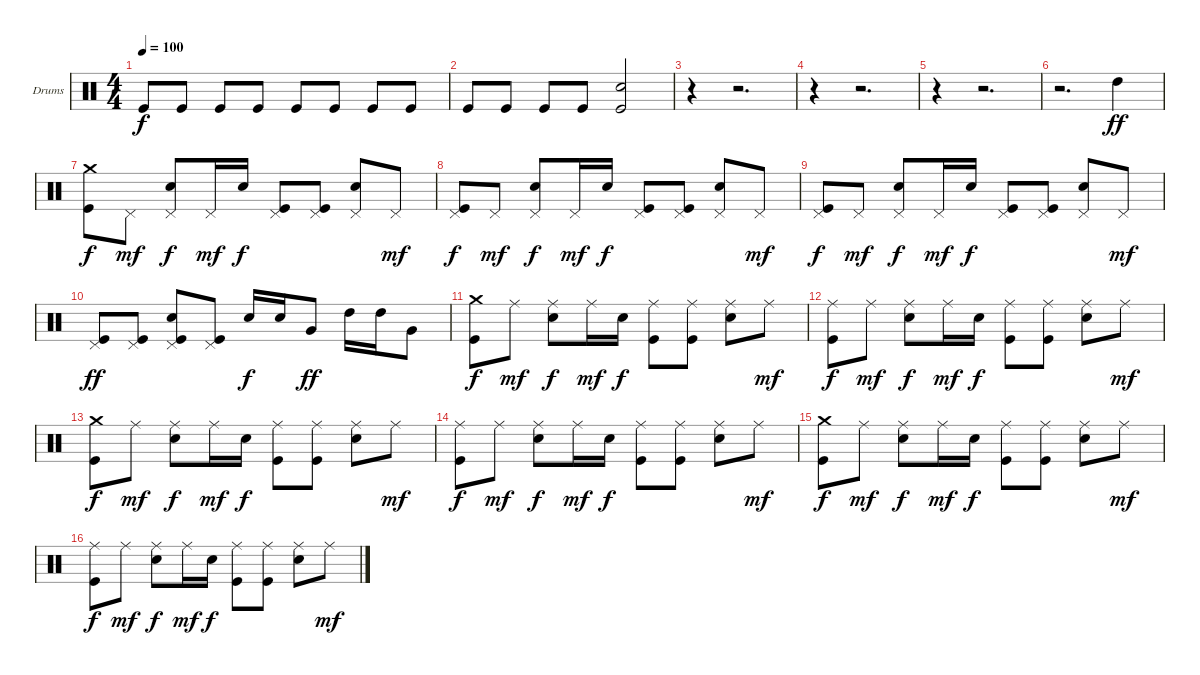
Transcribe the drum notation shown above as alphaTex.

\defaultSystemsLayout 4
\bracketExtendMode groupsimilarinstruments
\firstSystemTrackNameOrientation horizontal
\otherSystemsTrackNameOrientation horizontal
\track ("Drums" "Drums") {instrument percussion}
\staff {score}
\articulation defaults
\ts (4 4)
\tempo 100
\clef neutral
\scale
0.472222
\ks c "Kick (hit)".8{dy f} "Kick (hit)".8 "Kick (hit)".8 "Kick (hit)".8 "Kick (hit)".8 "Kick (hit)".8 "Kick (hit)".8 "Kick (hit)".8
|
\scale
0.263889 "Kick (hit)".8 "Kick (hit)".8 "Kick (hit)".8 "Kick (hit)".8 ("Kick (hit)" "Snare (hit) 2").2 |
\scale
0.263889 r.4 r.2{d} |
\scale
0.333333 r.4 r.2{d} |
\scale
0.333333 r.4 r.2{d} |
\scale
0.333333 r.2{d} "High Tom (hit)".4{dy ff} |
\scale
0.333333 ("Kick (hit)" "Crash medium (hit)").8{dy f} "Pedal Hi-Hat (hit)".8{dy mf} ("Snare (hit) 2" "Pedal Hi-Hat (hit)").8{dy f} "Pedal Hi-Hat (hit)".16{dy mf} "Snare (hit) 2".16{dy f} ("Kick (hit)" "Pedal Hi-Hat (hit)").8 ("Kick (hit)" "Pedal Hi-Hat (hit)").8 ("Snare (hit) 2" "Pedal Hi-Hat (hit)").8 "Pedal Hi-Hat (hit)".8{dy mf} |
\scale
0.333333 ("Kick (hit)" "Pedal Hi-Hat (hit)").8{dy f} "Pedal Hi-Hat (hit)".8{dy mf} ("Snare (hit) 2" "Pedal Hi-Hat (hit)").8{dy f} "Pedal Hi-Hat (hit)".16{dy mf} "Snare (hit) 2".16{dy f} ("Kick (hit)" "Pedal Hi-Hat (hit)").8 ("Kick (hit)" "Pedal Hi-Hat (hit)").8 ("Snare (hit) 2" "Pedal Hi-Hat (hit)").8 "Pedal Hi-Hat (hit)".8{dy mf} |
\scale
0.333333 ("Kick (hit)" "Pedal Hi-Hat (hit)").8{dy f} "Pedal Hi-Hat (hit)".8{dy mf} ("Snare (hit) 2" "Pedal Hi-Hat (hit)").8{dy f} "Pedal Hi-Hat (hit)".16{dy mf} "Snare (hit) 2".16{dy f} ("Kick (hit)" "Pedal Hi-Hat (hit)").8 ("Kick (hit)" "Pedal Hi-Hat (hit)").8 ("Snare (hit) 2" "Pedal Hi-Hat (hit)").8 "Pedal Hi-Hat (hit)".8{dy mf} |
("Kick (hit)" "Pedal Hi-Hat (hit)").8{dy ff} ("Kick (hit)" "Pedal Hi-Hat (hit)").8 ("Kick (hit)" "Snare (hit) 2" "Pedal Hi-Hat (hit)").8 ("Kick (hit)" "Pedal Hi-Hat (hit)").8 "Snare (hit) 2".16{dy f} "Snare (hit) 2".16 "Very Low Tom (hit)".8{dy ff} "High Tom (hit)".16 "High Tom (hit)".16 "Very Low Tom (hit)".8 |
("Kick (hit)" "Crash medium (hit)").8{dy f} "Ride (middle)".8{dy mf} ("Snare (hit) 2" "Ride (middle)").8{dy f} "Ride (middle)".16{dy mf} "Snare (hit) 2".16{dy f} ("Kick (hit)" "Ride (middle)").8 ("Kick (hit)" "Ride (middle)").8 ("Snare (hit) 2" "Ride (middle)").8 "Ride (middle)".8{dy mf} |
("Kick (hit)" "Ride (middle)").8{dy f} "Ride (middle)".8{dy mf} ("Snare (hit) 2" "Ride (middle)").8{dy f} "Ride (middle)".16{dy mf} "Snare (hit) 2".16{dy f} ("Kick (hit)" "Ride (middle)").8 ("Kick (hit)" "Ride (middle)").8 ("Snare (hit) 2" "Ride (middle)").8 "Ride (middle)".8{dy mf} |
("Kick (hit)" "Crash medium (hit)").8{dy f} "Ride (middle)".8{dy mf} ("Snare (hit) 2" "Ride (middle)").8{dy f} "Ride (middle)".16{dy mf} "Snare (hit) 2".16{dy f} ("Kick (hit)" "Ride (middle)").8 ("Kick (hit)" "Ride (middle)").8 ("Snare (hit) 2" "Ride (middle)").8 "Ride (middle)".8{dy mf} |
("Kick (hit)" "Ride (middle)").8{dy f} "Ride (middle)".8{dy mf} ("Snare (hit) 2" "Ride (middle)").8{dy f} "Ride (middle)".16{dy mf} "Snare (hit) 2".16{dy f} ("Kick (hit)" "Ride (middle)").8 ("Kick (hit)" "Ride (middle)").8 ("Snare (hit) 2" "Ride (middle)").8 "Ride (middle)".8{dy mf} |
("Kick (hit)" "Crash medium (hit)").8{dy f} "Ride (middle)".8{dy mf} ("Snare (hit) 2" "Ride (middle)").8{dy f} "Ride (middle)".16{dy mf} "Snare (hit) 2".16{dy f} ("Kick (hit)" "Ride (middle)").8 ("Kick (hit)" "Ride (middle)").8 ("Snare (hit) 2" "Ride (middle)").8 "Ride (middle)".8{dy mf} |
("Kick (hit)" "Ride (middle)").8{dy f} "Ride (middle)".8{dy mf} ("Snare (hit) 2" "Ride (middle)").8{dy f} "Ride (middle)".16{dy mf} "Snare (hit) 2".16{dy f} ("Kick (hit)" "Ride (middle)").8 ("Kick (hit)" "Ride (middle)").8 ("Snare (hit) 2" "Ride (middle)").8 "Ride (middle)".8{dy mf}
